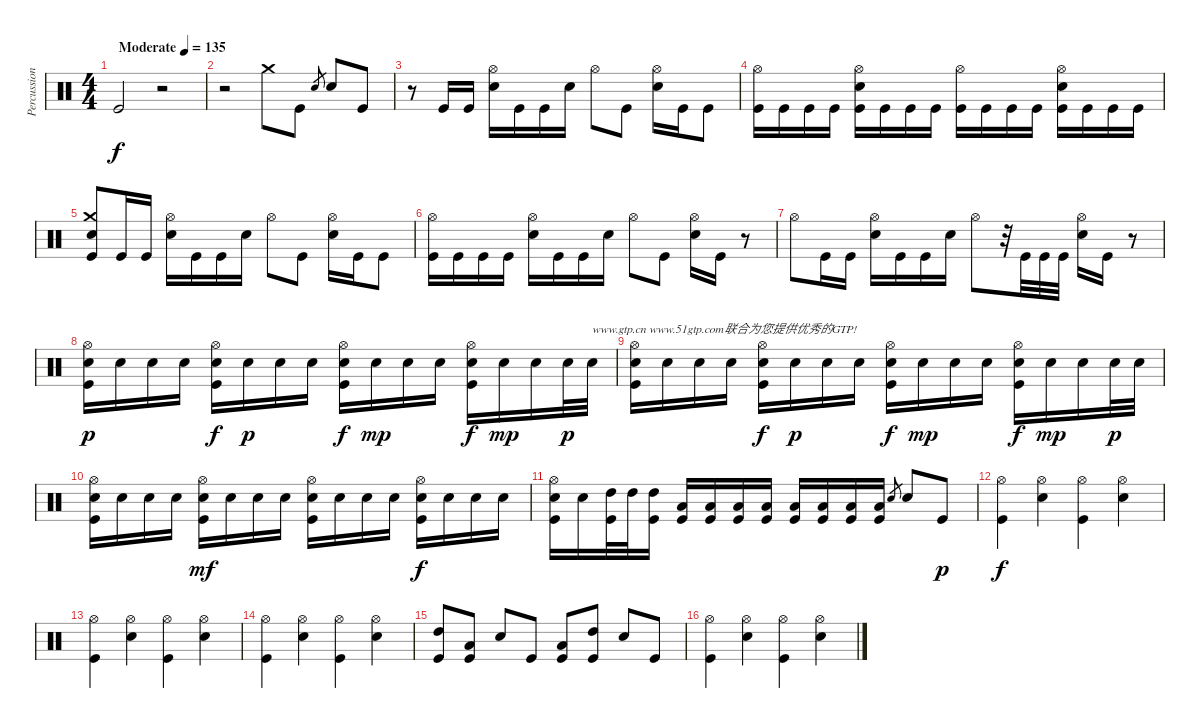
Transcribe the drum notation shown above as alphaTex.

\track ("Percussion" "Percussion") {instrument percussion}
\staff {score}
\articulation defaults
\ts (4 4)
\tempo (135 "Moderate")
\clef neutral
\ks c "Kick (hit)".2{dy f}
r.2 |
r.2 "Crash medium (hit)".8 "Kick (hit)".8 "Electric Snare (hit)".8{gr} "Electric Snare (hit)".8 "Kick (hit)".8 |
r.8 "Kick (hit)".16 "Kick (hit)".16 ("Hi-Hat (open)" "Electric Snare (hit)").16 "Kick (hit)".16 "Kick (hit)".16 "Electric Snare (hit)".16 "Hi-Hat (open)".8 "Kick (hit)".8 ("Hi-Hat (open)" "Electric Snare (hit)").16 "Kick (hit)".16 "Kick (hit)".8 |
("Hi-Hat (open)" "Kick (hit)").16 "Kick (hit)".16 "Kick (hit)".16 "Kick (hit)".16 ("Hi-Hat (open)" "Electric Snare (hit)" "Kick (hit)").16 "Kick (hit)".16 "Kick (hit)".16 "Kick (hit)".16 ("Hi-Hat (open)" "Kick (hit)").16 "Kick (hit)".16 "Kick (hit)".16 "Kick (hit)".16 ("Hi-Hat (open)" "Electric Snare (hit)" "Kick (hit)").16 "Kick (hit)".16 "Kick (hit)".16 "Kick (hit)".16 |
("Crash medium (hit)" "Electric Snare (hit)" "Kick (hit)").8 "Kick (hit)".16 "Kick (hit)".16 ("Hi-Hat (open)" "Electric Snare (hit)").16 "Kick (hit)".16 "Kick (hit)".16 "Electric Snare (hit)".16 "Hi-Hat (open)".8 "Kick (hit)".8 ("Hi-Hat (open)" "Electric Snare (hit)").16 "Kick (hit)".16 "Kick (hit)".8 |
("Hi-Hat (open)" "Kick (hit)").16 "Kick (hit)".16 "Kick (hit)".16 "Kick (hit)".16 ("Hi-Hat (open)" "Electric Snare (hit)").16 "Kick (hit)".16 "Kick (hit)".16 "Electric Snare (hit)".16 "Hi-Hat (open)".8 "Kick (hit)".8 ("Hi-Hat (open)" "Electric Snare (hit)").16 "Kick (hit)".16 r.8 |
"Hi-Hat (open)".8 "Kick (hit)".16 "Kick (hit)".16 ("Hi-Hat (open)" "Electric Snare (hit)").16 "Kick (hit)".16 "Kick (hit)".16 "Electric Snare (hit)".16 "Hi-Hat (open)".8 r.32 "Kick (hit)".32 "Kick (hit)".32 "Kick (hit)".32 ("Hi-Hat (open)" "Electric Snare (hit)").16 "Kick (hit)".16 r.8 |
("Hi-Hat (open)" "Electric Snare (hit)" "Kick (hit)").16{dy p} "Electric Snare (hit)".16 "Electric Snare (hit)".16 "Electric Snare (hit)".16 ("Hi-Hat (open)" "Electric Snare (hit)" "Kick (hit)").16{dy f} "Electric Snare (hit)".16{dy p} "Electric Snare (hit)".16 "Electric Snare (hit)".16 ("Hi-Hat (open)" "Electric Snare (hit)" "Kick (hit)").16{dy f} "Electric Snare (hit)".16{dy mp} "Electric Snare (hit)".16 "Electric Snare (hit)".16 ("Hi-Hat (open)" "Electric Snare (hit)" "Kick (hit)").16{dy f} "Electric Snare (hit)".16{dy mp} "Electric Snare (hit)".16 "Electric Snare (hit)".32{dy p} "Electric Snare (hit)".32{txt "www.gtp.cn www.51gtp.com联合为您提供优秀的GTP!"} |
("Hi-Hat (open)" "Electric Snare (hit)" "Kick (hit)").16 "Electric Snare (hit)".16 "Electric Snare (hit)".16 "Electric Snare (hit)".16 ("Hi-Hat (open)" "Electric Snare (hit)" "Kick (hit)").16{dy f} "Electric Snare (hit)".16{dy p} "Electric Snare (hit)".16 "Electric Snare (hit)".16 ("Hi-Hat (open)" "Electric Snare (hit)" "Kick (hit)").16{dy f} "Electric Snare (hit)".16{dy mp} "Electric Snare (hit)".16 "Electric Snare (hit)".16 ("Hi-Hat (open)" "Electric Snare (hit)" "Kick (hit)").16{dy f} "Electric Snare (hit)".16{dy mp} "Electric Snare (hit)".16 "Electric Snare (hit)".32{dy p} "Electric Snare (hit)".32 |
("Hi-Hat (open)" "Electric Snare (hit)" "Kick (hit)").16 "Electric Snare (hit)".16 "Electric Snare (hit)".16 "Electric Snare (hit)".16 ("Hi-Hat (open)" "Electric Snare (hit)" "Kick (hit)").16{dy mf} "Electric Snare (hit)".16 "Electric Snare (hit)".16 "Electric Snare (hit)".16 ("Hi-Hat (open)" "Electric Snare (hit)" "Kick (hit)").16 "Electric Snare (hit)".16 "Electric Snare (hit)".16 "Electric Snare (hit)".16 ("Hi-Hat (open)" "Electric Snare (hit)" "Kick (hit)").16{dy f} "Electric Snare (hit)".16 "Electric Snare (hit)".16 "Electric Snare (hit)".16 |
("Hi-Hat (open)" "Electric Snare (hit)" "Kick (hit)").16 "Electric Snare (hit)".16 ("High Tom (hit)" "Kick (hit)").32 "High Tom (hit)".32 ("High Tom (hit)" "Kick (hit)").16 ("Low Tom (hit)" "Kick (hit)").16 ("Low Tom (hit)" "Kick (hit)").16 ("Low Floor Tom (hit)" "Kick (hit)").16 ("Low Floor Tom (hit)" "Kick (hit)").16 ("Low Tom (hit)" "Kick (hit)").16 ("Low Tom (hit)" "Kick (hit)").16 ("Low Floor Tom (hit)" "Kick (hit)").16 ("Low Floor Tom (hit)" "Kick (hit)").16 "Electric Snare (hit)".8{gr} "Electric Snare (hit)".8 "Kick (hit)".8{dy p} |
("Hi-Hat (open)" "Kick (hit)").4{dy f} ("Hi-Hat (open)" "Electric Snare (hit)").4 ("Hi-Hat (open)" "Kick (hit)").4 ("Hi-Hat (open)" "Electric Snare (hit)").4 |
("Hi-Hat (open)" "Kick (hit)").4 ("Hi-Hat (open)" "Electric Snare (hit)").4 ("Hi-Hat (open)" "Kick (hit)").4 ("Hi-Hat (open)" "Electric Snare (hit)").4 |
("Hi-Hat (open)" "Kick (hit)").4 ("Hi-Hat (open)" "Electric Snare (hit)").4 ("Hi-Hat (open)" "Kick (hit)").4 ("Hi-Hat (open)" "Electric Snare (hit)").4 |
("High Tom (hit)" "Kick (hit)").8 ("Low Tom (hit)" "Kick (hit)").8 "Electric Snare (hit)".8 "Kick (hit)".8 ("Low Tom (hit)" "Kick (hit)").8 ("High Tom (hit)" "Kick (hit)").8 "Electric Snare (hit)".8 "Kick (hit)".8 |
("Hi-Hat (open)" "Kick (hit)").4 ("Hi-Hat (open)" "Electric Snare (hit)").4 ("Hi-Hat (open)" "Kick (hit)").4 ("Hi-Hat (open)" "Electric Snare (hit)").4
